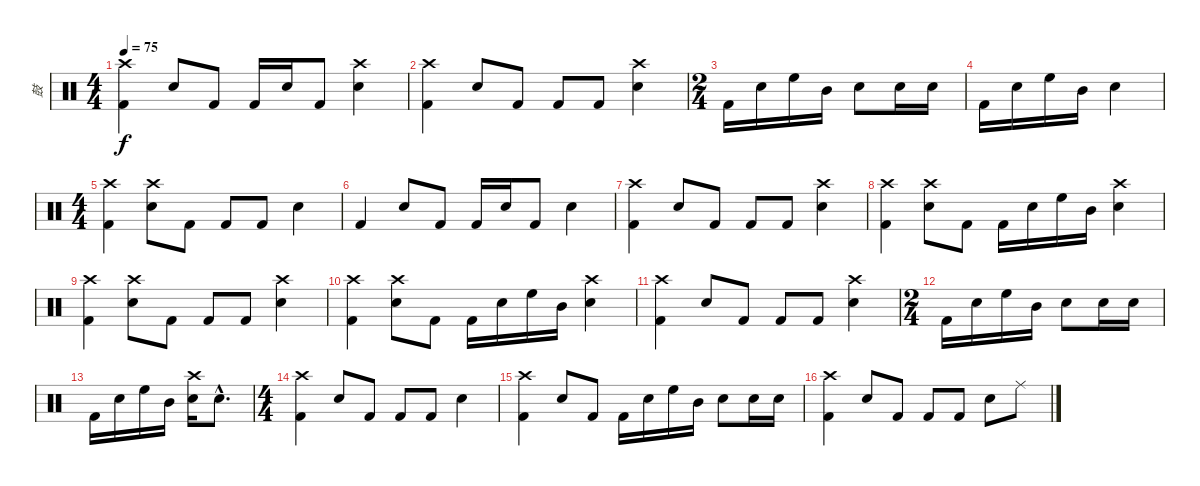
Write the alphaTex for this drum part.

\track ("鼓" "鼓") {instrument percussion}
\staff {score}
\articulation defaults
\ts (4 4)
\tempo 75
\clef neutral
\ks c
("Crash high (hit)" "Kick (hit) 2").4{dy f} "Snare (hit) 2".8 "Kick (hit) 2".8 "Kick (hit) 2".16 "Snare (hit) 2".16 "Kick (hit) 2".8 ("Crash high (hit)" "Snare (hit) 2").4 |
("Crash high (hit)" "Kick (hit) 2").4 "Snare (hit) 2".8 "Kick (hit) 2".8 "Kick (hit) 2".8 "Kick (hit) 2".8 ("Crash high (hit)" "Snare (hit) 2").4 |
\ts (2 4)
"Kick (hit) 2".16 "Snare (hit) 2".16 "High Floor Tom (hit)".16 "Mid Tom (hit)".16 "Snare (hit) 2".8 "Snare (hit) 2".16 "Snare (hit) 2".16 |
"Kick (hit) 2".16 "Snare (hit) 2".16 "High Floor Tom (hit)".16 "Mid Tom (hit)".16 "Snare (hit) 2".4 |
\ts (4 4)
("Crash high (hit)" "Kick (hit) 2").4 ("Crash high (hit)" "Snare (hit) 2").8 "Kick (hit) 2".8 "Kick (hit) 2".8 "Kick (hit) 2".8 "Snare (hit) 2".4 |
"Kick (hit) 2".4 "Snare (hit) 2".8 "Kick (hit) 2".8 "Kick (hit) 2".16 "Snare (hit) 2".16 "Kick (hit) 2".8 "Snare (hit) 2".4 |
("Crash high (hit)" "Kick (hit) 2").4 "Snare (hit) 2".8 "Kick (hit) 2".8 "Kick (hit) 2".8 "Kick (hit) 2".8 ("Crash high (hit)" "Snare (hit) 2").4 |
("Crash high (hit)" "Kick (hit) 2").4 ("Crash high (hit)" "Snare (hit) 2").8 "Kick (hit) 2".8 "Kick (hit) 2".16 "Snare (hit) 2".16 "High Floor Tom (hit)".16 "Mid Tom (hit)".16 ("Crash high (hit)" "Snare (hit) 2").4 |
("Crash high (hit)" "Kick (hit) 2").4 ("Crash high (hit)" "Snare (hit) 2").8 "Kick (hit) 2".8 "Kick (hit) 2".8 "Kick (hit) 2".8 ("Crash high (hit)" "Snare (hit) 2").4 |
("Crash high (hit)" "Kick (hit) 2").4 ("Crash high (hit)" "Snare (hit) 2").8 "Kick (hit) 2".8 "Kick (hit) 2".16 "Snare (hit) 2".16 "High Floor Tom (hit)".16 "Mid Tom (hit)".16 ("Crash high (hit)" "Snare (hit) 2").4 |
("Crash high (hit)" "Kick (hit) 2").4 "Snare (hit) 2".8 "Kick (hit) 2".8 "Kick (hit) 2".8 "Kick (hit) 2".8 ("Crash high (hit)" "Snare (hit) 2").4 |
\ts (2 4)
"Kick (hit) 2".16 "Snare (hit) 2".16 "High Floor Tom (hit)".16 "Mid Tom (hit)".16 "Snare (hit) 2".8 "Snare (hit) 2".16 "Snare (hit) 2".16 |
"Kick (hit) 2".16 "Snare (hit) 2".16 "High Floor Tom (hit)".16 "Mid Tom (hit)".16 ("Crash high (hit)" "Snare (hit) 2").16 "Snare (hit) 2"{hac}.8{d} |
\ts (4 4)
("Crash high (hit)" "Kick (hit) 2").4 "Snare (hit) 2".8 "Kick (hit) 2".8 "Kick (hit) 2".8 "Kick (hit) 2".8 "Snare (hit) 2".4 |
("Crash high (hit)" "Kick (hit) 2").4 "Snare (hit) 2".8 "Kick (hit) 2".8 "Kick (hit) 2".16 "Snare (hit) 2".16 "High Floor Tom (hit)".16 "Mid Tom (hit)".16 "Snare (hit) 2".8 "Snare (hit) 2".16 "Snare (hit) 2".16 |
("Crash high (hit)" "Kick (hit) 2").4 "Snare (hit) 2".8 "Kick (hit) 2".8 "Kick (hit) 2".8 "Kick (hit) 2".8 "Snare (hit) 2".8 "Ride (middle)".8
